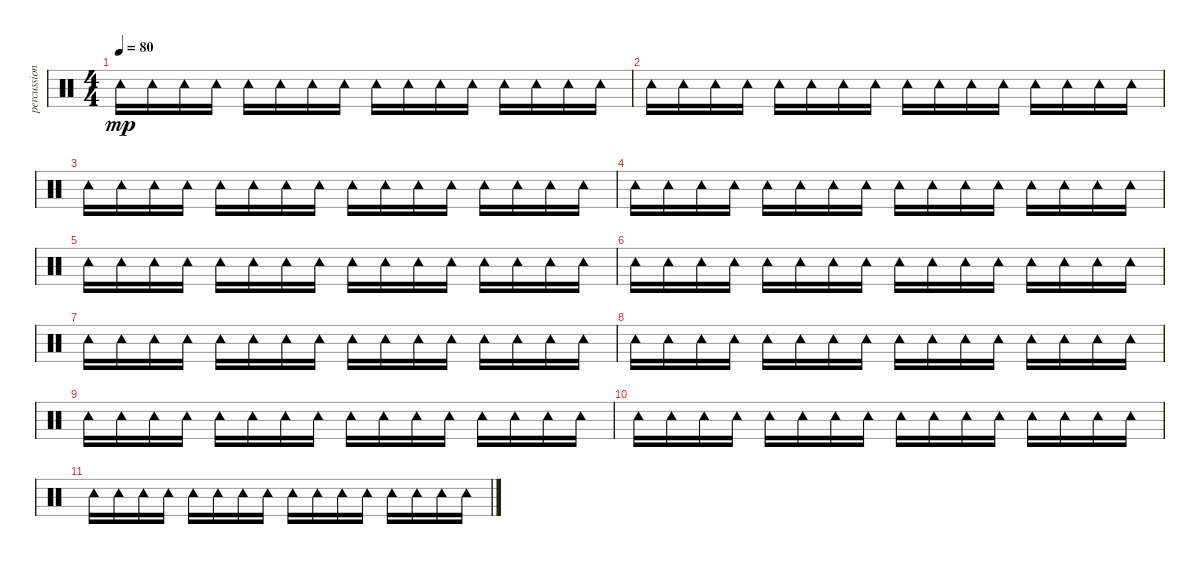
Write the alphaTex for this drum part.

\track ("percussion" "percussion") {instrument percussion}
\staff {score}
\articulation defaults
\ts (4 4)
\tempo 80
\clef neutral
\ks c "Tambourine (hit)".16{dy mp} "Tambourine (hit)".16 "Tambourine (hit)".16 "Tambourine (hit)".16 "Tambourine (hit)".16 "Tambourine (hit)".16 "Tambourine (hit)".16 "Tambourine (hit)".16 "Tambourine (hit)".16 "Tambourine (hit)".16 "Tambourine (hit)".16 "Tambourine (hit)".16 "Tambourine (hit)".16 "Tambourine (hit)".16 "Tambourine (hit)".16 "Tambourine (hit)".16
|
"Tambourine (hit)".16 "Tambourine (hit)".16 "Tambourine (hit)".16 "Tambourine (hit)".16 "Tambourine (hit)".16 "Tambourine (hit)".16 "Tambourine (hit)".16 "Tambourine (hit)".16 "Tambourine (hit)".16 "Tambourine (hit)".16 "Tambourine (hit)".16 "Tambourine (hit)".16 "Tambourine (hit)".16 "Tambourine (hit)".16 "Tambourine (hit)".16 "Tambourine (hit)".16 |
"Tambourine (hit)".16 "Tambourine (hit)".16 "Tambourine (hit)".16 "Tambourine (hit)".16 "Tambourine (hit)".16 "Tambourine (hit)".16 "Tambourine (hit)".16 "Tambourine (hit)".16 "Tambourine (hit)".16 "Tambourine (hit)".16 "Tambourine (hit)".16 "Tambourine (hit)".16 "Tambourine (hit)".16 "Tambourine (hit)".16 "Tambourine (hit)".16 "Tambourine (hit)".16 |
"Tambourine (hit)".16 "Tambourine (hit)".16 "Tambourine (hit)".16 "Tambourine (hit)".16 "Tambourine (hit)".16 "Tambourine (hit)".16 "Tambourine (hit)".16 "Tambourine (hit)".16 "Tambourine (hit)".16 "Tambourine (hit)".16 "Tambourine (hit)".16 "Tambourine (hit)".16 "Tambourine (hit)".16 "Tambourine (hit)".16 "Tambourine (hit)".16 "Tambourine (hit)".16 |
"Tambourine (hit)".16 "Tambourine (hit)".16 "Tambourine (hit)".16 "Tambourine (hit)".16 "Tambourine (hit)".16 "Tambourine (hit)".16 "Tambourine (hit)".16 "Tambourine (hit)".16 "Tambourine (hit)".16 "Tambourine (hit)".16 "Tambourine (hit)".16 "Tambourine (hit)".16 "Tambourine (hit)".16 "Tambourine (hit)".16 "Tambourine (hit)".16 "Tambourine (hit)".16 |
"Tambourine (hit)".16 "Tambourine (hit)".16 "Tambourine (hit)".16 "Tambourine (hit)".16 "Tambourine (hit)".16 "Tambourine (hit)".16 "Tambourine (hit)".16 "Tambourine (hit)".16 "Tambourine (hit)".16 "Tambourine (hit)".16 "Tambourine (hit)".16 "Tambourine (hit)".16 "Tambourine (hit)".16 "Tambourine (hit)".16 "Tambourine (hit)".16 "Tambourine (hit)".16 |
"Tambourine (hit)".16 "Tambourine (hit)".16 "Tambourine (hit)".16 "Tambourine (hit)".16 "Tambourine (hit)".16 "Tambourine (hit)".16 "Tambourine (hit)".16 "Tambourine (hit)".16 "Tambourine (hit)".16 "Tambourine (hit)".16 "Tambourine (hit)".16 "Tambourine (hit)".16 "Tambourine (hit)".16 "Tambourine (hit)".16 "Tambourine (hit)".16 "Tambourine (hit)".16 |
"Tambourine (hit)".16 "Tambourine (hit)".16 "Tambourine (hit)".16 "Tambourine (hit)".16 "Tambourine (hit)".16 "Tambourine (hit)".16 "Tambourine (hit)".16 "Tambourine (hit)".16 "Tambourine (hit)".16 "Tambourine (hit)".16 "Tambourine (hit)".16 "Tambourine (hit)".16 "Tambourine (hit)".16 "Tambourine (hit)".16 "Tambourine (hit)".16 "Tambourine (hit)".16 |
"Tambourine (hit)".16 "Tambourine (hit)".16 "Tambourine (hit)".16 "Tambourine (hit)".16 "Tambourine (hit)".16 "Tambourine (hit)".16 "Tambourine (hit)".16 "Tambourine (hit)".16 "Tambourine (hit)".16 "Tambourine (hit)".16 "Tambourine (hit)".16 "Tambourine (hit)".16 "Tambourine (hit)".16 "Tambourine (hit)".16 "Tambourine (hit)".16 "Tambourine (hit)".16 |
"Tambourine (hit)".16 "Tambourine (hit)".16 "Tambourine (hit)".16 "Tambourine (hit)".16 "Tambourine (hit)".16 "Tambourine (hit)".16 "Tambourine (hit)".16 "Tambourine (hit)".16 "Tambourine (hit)".16 "Tambourine (hit)".16 "Tambourine (hit)".16 "Tambourine (hit)".16 "Tambourine (hit)".16 "Tambourine (hit)".16 "Tambourine (hit)".16 "Tambourine (hit)".16 |
"Tambourine (hit)".16 "Tambourine (hit)".16 "Tambourine (hit)".16 "Tambourine (hit)".16 "Tambourine (hit)".16 "Tambourine (hit)".16 "Tambourine (hit)".16 "Tambourine (hit)".16 "Tambourine (hit)".16 "Tambourine (hit)".16 "Tambourine (hit)".16 "Tambourine (hit)".16 "Tambourine (hit)".16 "Tambourine (hit)".16 "Tambourine (hit)".16 "Tambourine (hit)".16
